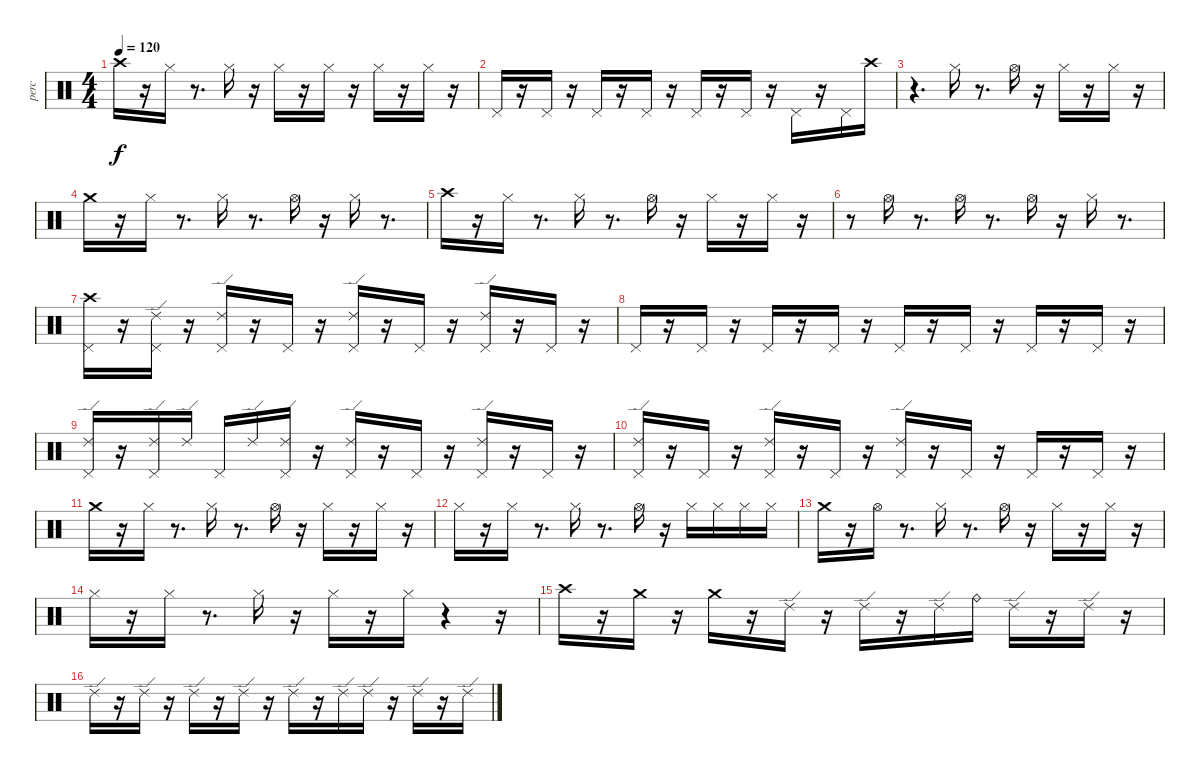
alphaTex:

\track ("perc" "perc") {instrument percussion}
\staff {score}
\articulation defaults
\ts (4 4)
\tempo 120
\clef neutral
\ks c "Crash high (hit)".16{dy f}
r.16 "Hi-Hat (closed)".16 r.8{d} "Hi-Hat (closed)".16 r.16 "Hi-Hat (closed)".16 r.16 "Hi-Hat (closed)".16 r.16 "Hi-Hat (closed)".16 r.16 "Hi-Hat (closed)".16 r.16 |
"Pedal Hi-Hat (hit)".16 r.16 "Pedal Hi-Hat (hit)".16 r.16 "Pedal Hi-Hat (hit)".16 r.16 "Pedal Hi-Hat (hit)".16 r.16 "Pedal Hi-Hat (hit)".16 r.16 "Pedal Hi-Hat (hit)".16 r.16 "Pedal Hi-Hat (hit)".16 r.16 "Pedal Hi-Hat (hit)".16 "Crash high (hit)".16 |
r.4{d} "Hi-Hat (closed)".16 r.8{d} "Hi-Hat (open)".16 r.16 "Hi-Hat (closed)".16 r.16 "Hi-Hat (closed)".16 r.16 |
"Crash medium (hit)".16 r.16 "Hi-Hat (closed)".16 r.8{d} "Hi-Hat (closed)".16 r.8{d} "Hi-Hat (open)".16 r.16 "Hi-Hat (closed)".16 r.8{d} |
"Crash high (hit)".16 r.16 "Hi-Hat (closed)".16 r.8{d} "Hi-Hat (closed)".16 r.8{d} "Hi-Hat (open)".16 r.16 "Hi-Hat (closed)".16 r.16 "Hi-Hat (closed)".16 r.16 |
r.8 "Hi-Hat (open)".16 r.8{d} "Hi-Hat (open)".16 r.8{d} "Hi-Hat (open)".16 r.16 "Hi-Hat (closed)".16 r.8{d} |
("Pedal Hi-Hat (hit)" "Crash high (hit)").16 r.16 ("Pedal Hi-Hat (hit)" "Ride (edge) 2").16 r.16 ("Pedal Hi-Hat (hit)" "Ride (edge) 2").16 r.16 "Pedal Hi-Hat (hit)".16 r.16 ("Pedal Hi-Hat (hit)" "Ride (edge) 2").16 r.16 "Pedal Hi-Hat (hit)".16 r.16 ("Pedal Hi-Hat (hit)" "Ride (edge) 2").16 r.16 "Pedal Hi-Hat (hit)".16 r.16 |
"Pedal Hi-Hat (hit)".16 r.16 "Pedal Hi-Hat (hit)".16 r.16 "Pedal Hi-Hat (hit)".16 r.16 "Pedal Hi-Hat (hit)".16 r.16 "Pedal Hi-Hat (hit)".16 r.16 "Pedal Hi-Hat (hit)".16 r.16 "Pedal Hi-Hat (hit)".16 r.16 "Pedal Hi-Hat (hit)".16 r.16 |
("Pedal Hi-Hat (hit)" "Ride (edge) 2").16 r.16 ("Pedal Hi-Hat (hit)" "Ride (edge) 2").16 "Ride (edge) 2".16 "Pedal Hi-Hat (hit)".16 "Ride (edge) 2".16 ("Pedal Hi-Hat (hit)" "Ride (edge) 2").16 r.16 ("Pedal Hi-Hat (hit)" "Ride (edge) 2").16 r.16 "Pedal Hi-Hat (hit)".16 r.16 ("Pedal Hi-Hat (hit)" "Ride (edge) 2").16 r.16 "Pedal Hi-Hat (hit)".16 r.16 |
("Pedal Hi-Hat (hit)" "Ride (edge) 2").16 r.16 "Pedal Hi-Hat (hit)".16 r.16 ("Pedal Hi-Hat (hit)" "Ride (edge) 2").16 r.16 "Pedal Hi-Hat (hit)".16 r.16 ("Pedal Hi-Hat (hit)" "Ride (edge) 2").16 r.16 "Pedal Hi-Hat (hit)".16 r.16 "Pedal Hi-Hat (hit)".16 r.16 "Pedal Hi-Hat (hit)".16 r.16 |
"Crash medium (hit)".16 r.16 "Hi-Hat (closed)".16 r.8{d} "Hi-Hat (closed)".16 r.8{d} "Hi-Hat (open)".16 r.16 "Hi-Hat (closed)".16 r.16 "Hi-Hat (closed)".16 r.16 |
"Hi-Hat (closed)".16 r.16 "Hi-Hat (closed)".16 r.8{d} "Hi-Hat (closed)".16 r.8{d} "Hi-Hat (open)".16 r.16 "Hi-Hat (closed)".16 "Hi-Hat (closed)".16 "Hi-Hat (closed)".16 "Hi-Hat (closed)".16 |
"Crash medium (hit)".16 r.16 "Hi-Hat (open)".16 r.8{d} "Hi-Hat (closed)".16 r.8{d} "Hi-Hat (open)".16 r.16 "Hi-Hat (closed)".16 r.16 "Hi-Hat (closed)".16 r.16 |
"Hi-Hat (closed)".16 r.16 "Hi-Hat (closed)".16 r.8{d} "Hi-Hat (closed)".16 r.16 "Hi-Hat (closed)".16 r.16 "Hi-Hat (closed)".16 r.4 r.16 |
"Crash high (hit)".16 r.16 "Crash medium (hit)".16 r.16 "Crash medium (hit)".16 r.16 "Ride (edge) 2".16 r.16 "Ride (edge) 2".16 r.16 "Ride (edge) 2".16 "Ride (bell)".16 "Ride (edge) 2".16 r.16 "Ride (edge) 2".16 r.16 |
"Ride (edge) 2".16 r.16 "Ride (edge) 2".16 r.16 "Ride (edge) 2".16 r.16 "Ride (edge) 2".16 r.16 "Ride (edge) 2".16 r.16 "Ride (edge) 2".16 "Ride (edge) 2".16 r.16 "Ride (edge) 2".16 r.16 "Ride (edge) 2".16
